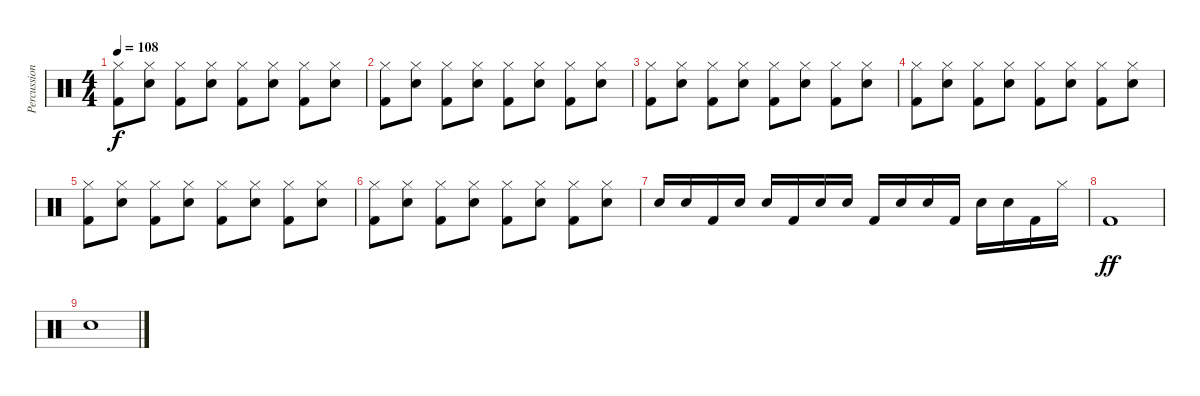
\track ("Percussion" "Percussion") {instrument percussion}
\staff {score}
\articulation defaults
\ts (4 4)
\tempo 108
\clef neutral
\ks c
("Hi-Hat (closed)" "Kick (hit) 2").8{dy f} ("Hi-Hat (closed)" "Electric Snare (hit)").8 ("Hi-Hat (closed)" "Kick (hit) 2").8 ("Hi-Hat (closed)" "Electric Snare (hit)").8 ("Hi-Hat (closed)" "Kick (hit) 2").8 ("Hi-Hat (closed)" "Electric Snare (hit)").8 ("Hi-Hat (closed)" "Kick (hit) 2").8 ("Hi-Hat (closed)" "Electric Snare (hit)").8 |
("Hi-Hat (closed)" "Kick (hit) 2").8 ("Hi-Hat (closed)" "Electric Snare (hit)").8 ("Hi-Hat (closed)" "Kick (hit) 2").8 ("Hi-Hat (closed)" "Electric Snare (hit)").8 ("Hi-Hat (closed)" "Kick (hit) 2").8 ("Hi-Hat (closed)" "Electric Snare (hit)").8 ("Hi-Hat (closed)" "Kick (hit) 2").8 ("Hi-Hat (closed)" "Electric Snare (hit)").8 |
("Hi-Hat (closed)" "Kick (hit) 2").8 ("Hi-Hat (closed)" "Electric Snare (hit)").8 ("Hi-Hat (closed)" "Kick (hit) 2").8 ("Hi-Hat (closed)" "Electric Snare (hit)").8 ("Hi-Hat (closed)" "Kick (hit) 2").8 ("Hi-Hat (closed)" "Electric Snare (hit)").8 ("Hi-Hat (closed)" "Kick (hit) 2").8 ("Hi-Hat (closed)" "Electric Snare (hit)").8 |
("Hi-Hat (closed)" "Kick (hit) 2").8 ("Hi-Hat (closed)" "Electric Snare (hit)").8 ("Hi-Hat (closed)" "Kick (hit) 2").8 ("Hi-Hat (closed)" "Electric Snare (hit)").8 ("Hi-Hat (closed)" "Kick (hit) 2").8 ("Hi-Hat (closed)" "Electric Snare (hit)").8 ("Hi-Hat (closed)" "Kick (hit) 2").8 ("Hi-Hat (closed)" "Electric Snare (hit)").8 |
("Hi-Hat (closed)" "Kick (hit) 2").8 ("Hi-Hat (closed)" "Electric Snare (hit)").8 ("Hi-Hat (closed)" "Kick (hit) 2").8 ("Hi-Hat (closed)" "Electric Snare (hit)").8 ("Hi-Hat (closed)" "Kick (hit) 2").8 ("Hi-Hat (closed)" "Electric Snare (hit)").8 ("Hi-Hat (closed)" "Kick (hit) 2").8 ("Hi-Hat (closed)" "Electric Snare (hit)").8 |
("Hi-Hat (closed)" "Kick (hit) 2").8 ("Hi-Hat (closed)" "Electric Snare (hit)").8 ("Hi-Hat (closed)" "Kick (hit) 2").8 ("Hi-Hat (closed)" "Electric Snare (hit)").8 ("Hi-Hat (closed)" "Kick (hit) 2").8 ("Hi-Hat (closed)" "Electric Snare (hit)").8 ("Hi-Hat (closed)" "Kick (hit) 2").8 ("Hi-Hat (closed)" "Electric Snare (hit)").8 |
"Electric Snare (hit)".16 "Snare (hit) 2".16 "Kick (hit) 2".16 "Electric Snare (hit)".16 "Snare (hit) 2".16 "Kick (hit) 2".16 "Electric Snare (hit)".16 "Snare (hit) 2".16 "Kick (hit) 2".16 "Electric Snare (hit)".16 "Snare (hit) 2".16 "Kick (hit) 2".16 "Electric Snare (hit)".16 "Snare (hit) 2".16 "Kick (hit) 2".16 "Hi-Hat (closed)".16 |
"Kick (hit) 2".1{dy ff} |
"Snare (hit)".1
